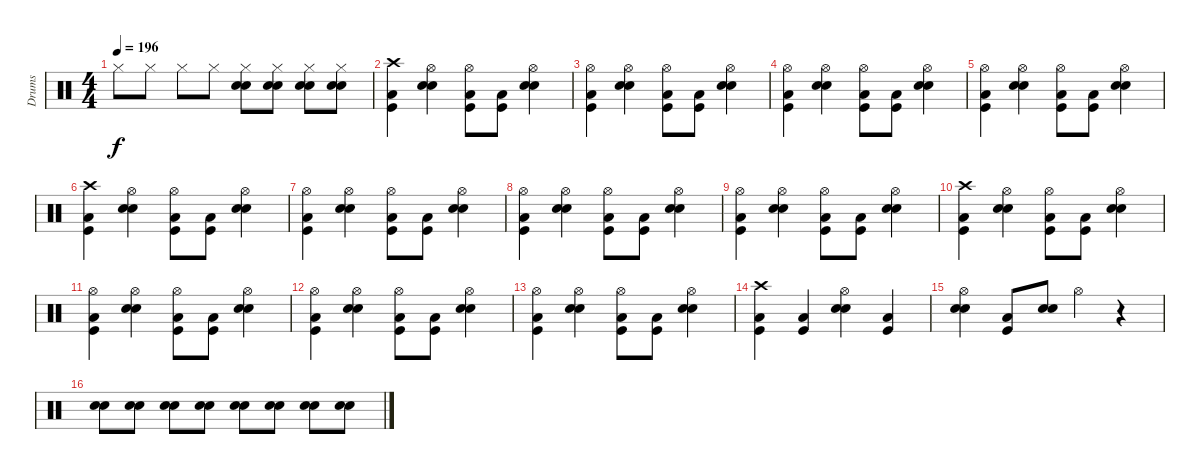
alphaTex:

\track ("Drums" "Drums") {instrument percussion}
\staff {score}
\articulation defaults
\ts (4 4)
\tempo 196
\clef neutral
\ks c "Hi-Hat (closed)".8{dy f} "Hi-Hat (closed)".8 "Hi-Hat (closed)".8 "Hi-Hat (closed)".8
("Hi-Hat (closed)" "Snare (hit) 2" "Electric Snare (hit)").8 ("Hi-Hat (closed)" "Snare (hit) 2" "Electric Snare (hit)").8 ("Hi-Hat (closed)" "Snare (hit) 2" "Electric Snare (hit)").8 ("Hi-Hat (closed)" "Snare (hit) 2" "Electric Snare (hit)").8 |
("Crash high (hit)" "Kick (hit)" "Low Tom (hit)").4 ("Hi-Hat (open)" "Snare (hit) 2" "Electric Snare (hit)").4 ("Hi-Hat (open)" "Kick (hit)" "Low Tom (hit)").8 ("Kick (hit)" "Low Tom (hit)").8 ("Hi-Hat (open)" "Snare (hit) 2" "Electric Snare (hit)").4 |
("Hi-Hat (open)" "Kick (hit)" "Low Tom (hit)").4 ("Hi-Hat (open)" "Snare (hit) 2" "Electric Snare (hit)").4 ("Hi-Hat (open)" "Kick (hit)" "Low Tom (hit)").8 ("Kick (hit)" "Low Tom (hit)").8 ("Hi-Hat (open)" "Snare (hit) 2" "Electric Snare (hit)").4 |
("Hi-Hat (open)" "Kick (hit)" "Low Tom (hit)").4 ("Hi-Hat (open)" "Snare (hit) 2" "Electric Snare (hit)").4 ("Hi-Hat (open)" "Kick (hit)" "Low Tom (hit)").8 ("Kick (hit)" "Low Tom (hit)").8 ("Hi-Hat (open)" "Snare (hit) 2" "Electric Snare (hit)").4 |
("Hi-Hat (open)" "Kick (hit)" "Low Tom (hit)").4 ("Hi-Hat (open)" "Snare (hit) 2" "Electric Snare (hit)").4 ("Hi-Hat (open)" "Kick (hit)" "Low Tom (hit)").8 ("Kick (hit)" "Low Tom (hit)").8 ("Hi-Hat (open)" "Snare (hit) 2" "Electric Snare (hit)").4 |
("Crash high (hit)" "Kick (hit)" "Low Tom (hit)").4 ("Hi-Hat (open)" "Snare (hit) 2" "Electric Snare (hit)").4 ("Hi-Hat (open)" "Kick (hit)" "Low Tom (hit)").8 ("Kick (hit)" "Low Tom (hit)").8 ("Hi-Hat (open)" "Snare (hit) 2" "Electric Snare (hit)").4 |
("Hi-Hat (open)" "Kick (hit)" "Low Tom (hit)").4 ("Hi-Hat (open)" "Snare (hit) 2" "Electric Snare (hit)").4 ("Hi-Hat (open)" "Kick (hit)" "Low Tom (hit)").8 ("Kick (hit)" "Low Tom (hit)").8 ("Hi-Hat (open)" "Snare (hit) 2" "Electric Snare (hit)").4 |
("Hi-Hat (open)" "Kick (hit)" "Low Tom (hit)").4 ("Hi-Hat (open)" "Snare (hit) 2" "Electric Snare (hit)").4 ("Hi-Hat (open)" "Kick (hit)" "Low Tom (hit)").8 ("Kick (hit)" "Low Tom (hit)").8 ("Hi-Hat (open)" "Snare (hit) 2" "Electric Snare (hit)").4 |
("Hi-Hat (open)" "Kick (hit)" "Low Tom (hit)").4 ("Hi-Hat (open)" "Snare (hit) 2" "Electric Snare (hit)").4 ("Hi-Hat (open)" "Kick (hit)" "Low Tom (hit)").8 ("Kick (hit)" "Low Tom (hit)").8 ("Hi-Hat (open)" "Snare (hit) 2" "Electric Snare (hit)").4 |
("Crash high (hit)" "Kick (hit)" "Low Tom (hit)").4 ("Hi-Hat (open)" "Snare (hit) 2" "Electric Snare (hit)").4 ("Hi-Hat (open)" "Kick (hit)" "Low Tom (hit)").8 ("Kick (hit)" "Low Tom (hit)").8 ("Hi-Hat (open)" "Snare (hit) 2" "Electric Snare (hit)").4 |
("Hi-Hat (open)" "Kick (hit)" "Low Tom (hit)").4 ("Hi-Hat (open)" "Snare (hit) 2" "Electric Snare (hit)").4 ("Hi-Hat (open)" "Kick (hit)" "Low Tom (hit)").8 ("Kick (hit)" "Low Tom (hit)").8 ("Hi-Hat (open)" "Snare (hit) 2" "Electric Snare (hit)").4 |
("Hi-Hat (open)" "Kick (hit)" "Low Tom (hit)").4 ("Hi-Hat (open)" "Snare (hit) 2" "Electric Snare (hit)").4 ("Hi-Hat (open)" "Kick (hit)" "Low Tom (hit)").8 ("Kick (hit)" "Low Tom (hit)").8 ("Hi-Hat (open)" "Snare (hit) 2" "Electric Snare (hit)").4 |
("Hi-Hat (open)" "Kick (hit)" "Low Tom (hit)").4 ("Hi-Hat (open)" "Snare (hit) 2" "Electric Snare (hit)").4 ("Hi-Hat (open)" "Kick (hit)" "Low Tom (hit)").8 ("Kick (hit)" "Low Tom (hit)").8 ("Hi-Hat (open)" "Snare (hit) 2" "Electric Snare (hit)").4 |
("Crash high (hit)" "Kick (hit)" "Low Tom (hit)").4 ("Kick (hit)" "Low Tom (hit)").4 ("Hi-Hat (open)" "Snare (hit) 2" "Electric Snare (hit)").4 ("Low Tom (hit)" "Kick (hit)").4 |
("Hi-Hat (open)" "Snare (hit) 2" "Electric Snare (hit)").4 ("Kick (hit)" "Low Tom (hit)").8 ("Snare (hit) 2" "Electric Snare (hit)").8 "Hi-Hat (open)".4 r.4 |
("Snare (hit) 2" "Electric Snare (hit)").8 ("Snare (hit) 2" "Electric Snare (hit)").8 ("Snare (hit) 2" "Electric Snare (hit)").8 ("Snare (hit) 2" "Electric Snare (hit)").8 ("Snare (hit) 2" "Electric Snare (hit)").8 ("Snare (hit) 2" "Electric Snare (hit)").8 ("Snare (hit) 2" "Electric Snare (hit)").8 ("Snare (hit) 2" "Electric Snare (hit)").8
